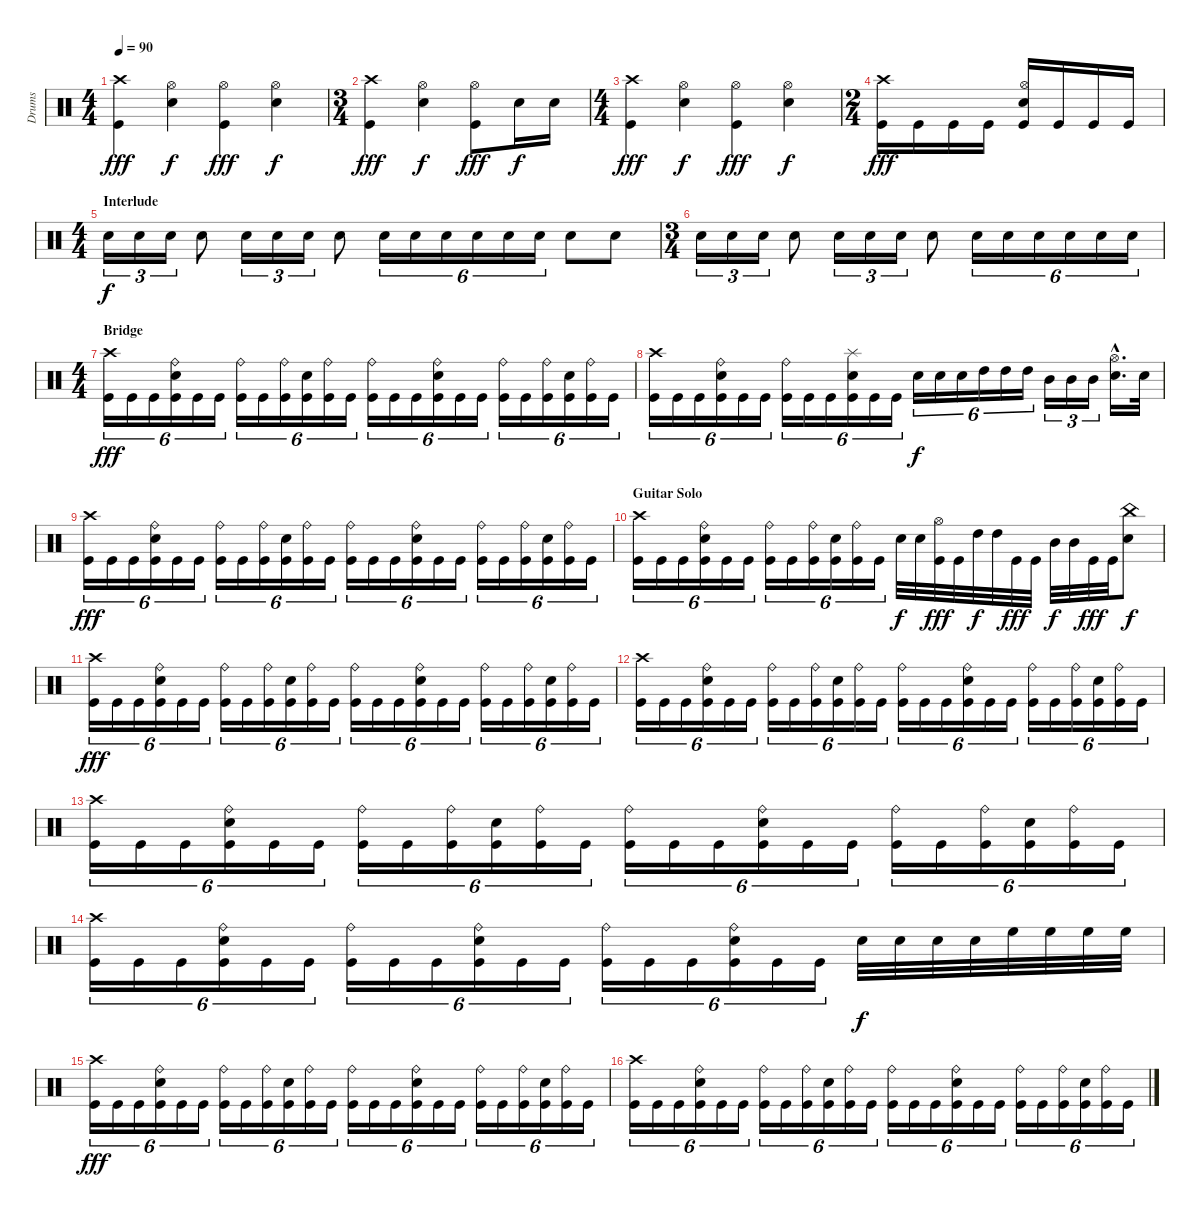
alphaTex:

\track ("Drums" "Drums") {instrument percussion}
\staff {score}
\articulation defaults
\ts (4 4)
\tempo 90
\clef neutral
\ks c
("Crash high (hit)" "Kick (hit)").4{dy fff} ("Hi-Hat (open)" "Electric Snare (hit)").4{dy f} ("Hi-Hat (open)" "Kick (hit)").4{dy fff} ("Hi-Hat (open)" "Electric Snare (hit)").4{dy f} |
\ts (3 4)
("Crash high (hit)" "Kick (hit)").4{dy fff} ("Hi-Hat (open)" "Electric Snare (hit)").4{dy f} ("Hi-Hat (open)" "Kick (hit)").8{dy fff} "Electric Snare (hit)".16{dy f} "Electric Snare (hit)".16 |
\ts (4 4)
("Crash high (hit)" "Kick (hit)").4{dy fff} ("Hi-Hat (open)" "Electric Snare (hit)").4{dy f} ("Hi-Hat (open)" "Kick (hit)").4{dy fff} ("Hi-Hat (open)" "Electric Snare (hit)").4{dy f} |
\ts (2 4)
("Crash high (hit)" "Kick (hit)").16{dy fff} "Kick (hit)".16 "Kick (hit)".16 "Kick (hit)".16 ("Hi-Hat (open)" "Electric Snare (hit)" "Kick (hit)").16 "Kick (hit)".16 "Kick (hit)".16 "Kick (hit)".16 |
\ts (4 4)
\section ("" "Interlude")
"Electric Snare (hit)".16{tu (3 2) dy f} "Electric Snare (hit)".16{tu (3 2)} "Electric Snare (hit)".16{tu (3 2)} "Electric Snare (hit)".8 "Electric Snare (hit)".16{tu (3 2)} "Electric Snare (hit)".16{tu (3 2)} "Electric Snare (hit)".16{tu (3 2)} "Electric Snare (hit)".8 "Electric Snare (hit)".16{tu (6 4)} "Electric Snare (hit)".16{tu (6 4)} "Electric Snare (hit)".16{tu (6 4)} "Electric Snare (hit)".16{tu (6 4)} "Electric Snare (hit)".16{tu (6 4)} "Electric Snare (hit)".16{tu (6 4)} "Electric Snare (hit)".8 "Electric Snare (hit)".8 |
\ts (3 4)
"Electric Snare (hit)".16{tu (3 2)} "Electric Snare (hit)".16{tu (3 2)} "Electric Snare (hit)".16{tu (3 2)} "Electric Snare (hit)".8 "Electric Snare (hit)".16{tu (3 2)} "Electric Snare (hit)".16{tu (3 2)} "Electric Snare (hit)".16{tu (3 2)} "Electric Snare (hit)".8 "Electric Snare (hit)".16{tu (6 4)} "Electric Snare (hit)".16{tu (6 4)} "Electric Snare (hit)".16{tu (6 4)} "Electric Snare (hit)".16{tu (6 4)} "Electric Snare (hit)".16{tu (6 4)} "Electric Snare (hit)".16{tu (6 4)} |
\ts (4 4)
\section ("" "Bridge")
("Crash high (hit)" "Kick (hit)").16{tu (6 4) dy fff} "Kick (hit)".16{tu (6 4)} "Kick (hit)".16{tu (6 4)} ("Ride (bell)" "Electric Snare (hit)" "Kick (hit)").16{tu (6 4)} "Kick (hit)".16{tu (6 4)} "Kick (hit)".16{tu (6 4)} ("Ride (bell)" "Kick (hit)").16{tu (6 4)} "Kick (hit)".16{tu (6 4)} ("Ride (bell)" "Kick (hit)").16{tu (6 4)} ("Electric Snare (hit)" "Kick (hit)").16{tu (6 4)} ("Ride (bell)" "Kick (hit)").16{tu (6 4)} "Kick (hit)".16{tu (6 4)} ("Ride (bell)" "Kick (hit)").16{tu (6 4)} "Kick (hit)".16{tu (6 4)} "Kick (hit)".16{tu (6 4)} ("Ride (bell)" "Electric Snare (hit)" "Kick (hit)").16{tu (6 4)} "Kick (hit)".16{tu (6 4)} "Kick (hit)".16{tu (6 4)} ("Ride (bell)" "Kick (hit)").16{tu (6 4)} "Kick (hit)".16{tu (6 4)} ("Ride (bell)" "Kick (hit)").16{tu (6 4)} ("Electric Snare (hit)" "Kick (hit)").16{tu (6 4)} ("Ride (bell)" "Kick (hit)").16{tu (6 4)} "Kick (hit)".16{tu (6 4)} |
("Crash high (hit)" "Kick (hit)").16{tu (6 4)} "Kick (hit)".16{tu (6 4)} "Kick (hit)".16{tu (6 4)} ("Ride (bell)" "Electric Snare (hit)" "Kick (hit)").16{tu (6 4)} "Kick (hit)".16{tu (6 4)} "Kick (hit)".16{tu (6 4)} ("Ride (bell)" "Kick (hit)").16{tu (6 4)} "Kick (hit)".16{tu (6 4)} "Kick (hit)".16{tu (6 4)} ("Splash (hit)" "Electric Snare (hit)" "Kick (hit)").16{tu (6 4)} "Kick (hit)".16{tu (6 4)} "Kick (hit)".16{tu (6 4)} "Electric Snare (hit)".16{tu (6 4) dy f} "Electric Snare (hit)".16{tu (6 4)} "Electric Snare (hit)".16{tu (6 4)} "High Tom (hit)".16{tu (6 4)} "High Tom (hit)".16{tu (6 4)} "High Tom (hit)".16{tu (6 4)} "Mid Tom (hit)".16{tu (3 2)} "Mid Tom (hit)".16{tu (3 2)} "Mid Tom (hit)".16{tu (3 2)} ("Hi-Hat (open)"{hac} "Electric Snare (hit)"{hac}).16{d} "Electric Snare (hit)".32 |
("Crash high (hit)" "Kick (hit)").16{tu (6 4) dy fff} "Kick (hit)".16{tu (6 4)} "Kick (hit)".16{tu (6 4)} ("Ride (bell)" "Electric Snare (hit)" "Kick (hit)").16{tu (6 4)} "Kick (hit)".16{tu (6 4)} "Kick (hit)".16{tu (6 4)} ("Ride (bell)" "Kick (hit)").16{tu (6 4)} "Kick (hit)".16{tu (6 4)} ("Ride (bell)" "Kick (hit)").16{tu (6 4)} ("Electric Snare (hit)" "Kick (hit)").16{tu (6 4)} ("Ride (bell)" "Kick (hit)").16{tu (6 4)} "Kick (hit)".16{tu (6 4)} ("Ride (bell)" "Kick (hit)").16{tu (6 4)} "Kick (hit)".16{tu (6 4)} "Kick (hit)".16{tu (6 4)} ("Ride (bell)" "Electric Snare (hit)" "Kick (hit)").16{tu (6 4)} "Kick (hit)".16{tu (6 4)} "Kick (hit)".16{tu (6 4)} ("Ride (bell)" "Kick (hit)").16{tu (6 4)} "Kick (hit)".16{tu (6 4)} ("Ride (bell)" "Kick (hit)").16{tu (6 4)} ("Electric Snare (hit)" "Kick (hit)").16{tu (6 4)} ("Ride (bell)" "Kick (hit)").16{tu (6 4)} "Kick (hit)".16{tu (6 4)} |
\section ("" "Guitar Solo")
("Crash high (hit)" "Kick (hit)").16{tu (6 4)} "Kick (hit)".16{tu (6 4)} "Kick (hit)".16{tu (6 4)} ("Ride (bell)" "Electric Snare (hit)" "Kick (hit)").16{tu (6 4)} "Kick (hit)".16{tu (6 4)} "Kick (hit)".16{tu (6 4)} ("Ride (bell)" "Kick (hit)").16{tu (6 4)} "Kick (hit)".16{tu (6 4)} ("Ride (bell)" "Kick (hit)").16{tu (6 4)} ("Electric Snare (hit)" "Kick (hit)").16{tu (6 4)} ("Ride (bell)" "Kick (hit)").16{tu (6 4)} "Kick (hit)".16{tu (6 4)} "Electric Snare (hit)".32{dy f} "Electric Snare (hit)".32 ("Hi-Hat (open)" "Kick (hit)").32{dy fff} "Kick (hit)".32 "High Tom (hit)".32{dy f} "High Tom (hit)".32 "Kick (hit)".32{dy fff} "Kick (hit)".32 "Mid Tom (hit)".32{dy f} "Mid Tom (hit)".32 "Kick (hit)".32{dy fff} "Kick (hit)".32 ("China (hit)" "Electric Snare (hit)").8{dy f} |
("Crash high (hit)" "Kick (hit)").16{tu (6 4) dy fff} "Kick (hit)".16{tu (6 4)} "Kick (hit)".16{tu (6 4)} ("Ride (bell)" "Electric Snare (hit)" "Kick (hit)").16{tu (6 4)} "Kick (hit)".16{tu (6 4)} "Kick (hit)".16{tu (6 4)} ("Ride (bell)" "Kick (hit)").16{tu (6 4)} "Kick (hit)".16{tu (6 4)} ("Ride (bell)" "Kick (hit)").16{tu (6 4)} ("Electric Snare (hit)" "Kick (hit)").16{tu (6 4)} ("Ride (bell)" "Kick (hit)").16{tu (6 4)} "Kick (hit)".16{tu (6 4)} ("Ride (bell)" "Kick (hit)").16{tu (6 4)} "Kick (hit)".16{tu (6 4)} "Kick (hit)".16{tu (6 4)} ("Ride (bell)" "Electric Snare (hit)" "Kick (hit)").16{tu (6 4)} "Kick (hit)".16{tu (6 4)} "Kick (hit)".16{tu (6 4)} ("Ride (bell)" "Kick (hit)").16{tu (6 4)} "Kick (hit)".16{tu (6 4)} ("Ride (bell)" "Kick (hit)").16{tu (6 4)} ("Electric Snare (hit)" "Kick (hit)").16{tu (6 4)} ("Ride (bell)" "Kick (hit)").16{tu (6 4)} "Kick (hit)".16{tu (6 4)} |
("Crash high (hit)" "Kick (hit)").16{tu (6 4)} "Kick (hit)".16{tu (6 4)} "Kick (hit)".16{tu (6 4)} ("Ride (bell)" "Electric Snare (hit)" "Kick (hit)").16{tu (6 4)} "Kick (hit)".16{tu (6 4)} "Kick (hit)".16{tu (6 4)} ("Ride (bell)" "Kick (hit)").16{tu (6 4)} "Kick (hit)".16{tu (6 4)} ("Ride (bell)" "Kick (hit)").16{tu (6 4)} ("Electric Snare (hit)" "Kick (hit)").16{tu (6 4)} ("Ride (bell)" "Kick (hit)").16{tu (6 4)} "Kick (hit)".16{tu (6 4)} ("Ride (bell)" "Kick (hit)").16{tu (6 4)} "Kick (hit)".16{tu (6 4)} "Kick (hit)".16{tu (6 4)} ("Ride (bell)" "Electric Snare (hit)" "Kick (hit)").16{tu (6 4)} "Kick (hit)".16{tu (6 4)} "Kick (hit)".16{tu (6 4)} ("Ride (bell)" "Kick (hit)").16{tu (6 4)} "Kick (hit)".16{tu (6 4)} ("Ride (bell)" "Kick (hit)").16{tu (6 4)} ("Electric Snare (hit)" "Kick (hit)").16{tu (6 4)} ("Ride (bell)" "Kick (hit)").16{tu (6 4)} "Kick (hit)".16{tu (6 4)} |
("Crash high (hit)" "Kick (hit)").16{tu (6 4)} "Kick (hit)".16{tu (6 4)} "Kick (hit)".16{tu (6 4)} ("Ride (bell)" "Electric Snare (hit)" "Kick (hit)").16{tu (6 4)} "Kick (hit)".16{tu (6 4)} "Kick (hit)".16{tu (6 4)} ("Ride (bell)" "Kick (hit)").16{tu (6 4)} "Kick (hit)".16{tu (6 4)} ("Ride (bell)" "Kick (hit)").16{tu (6 4)} ("Electric Snare (hit)" "Kick (hit)").16{tu (6 4)} ("Ride (bell)" "Kick (hit)").16{tu (6 4)} "Kick (hit)".16{tu (6 4)} ("Ride (bell)" "Kick (hit)").16{tu (6 4)} "Kick (hit)".16{tu (6 4)} "Kick (hit)".16{tu (6 4)} ("Ride (bell)" "Electric Snare (hit)" "Kick (hit)").16{tu (6 4)} "Kick (hit)".16{tu (6 4)} "Kick (hit)".16{tu (6 4)} ("Ride (bell)" "Kick (hit)").16{tu (6 4)} "Kick (hit)".16{tu (6 4)} ("Ride (bell)" "Kick (hit)").16{tu (6 4)} ("Electric Snare (hit)" "Kick (hit)").16{tu (6 4)} ("Ride (bell)" "Kick (hit)").16{tu (6 4)} "Kick (hit)".16{tu (6 4)} |
("Crash high (hit)" "Kick (hit)").16{tu (6 4)} "Kick (hit)".16{tu (6 4)} "Kick (hit)".16{tu (6 4)} ("Ride (bell)" "Electric Snare (hit)" "Kick (hit)").16{tu (6 4)} "Kick (hit)".16{tu (6 4)} "Kick (hit)".16{tu (6 4)} ("Ride (bell)" "Kick (hit)").16{tu (6 4)} "Kick (hit)".16{tu (6 4)} "Kick (hit)".16{tu (6 4)} ("Ride (bell)" "Electric Snare (hit)" "Kick (hit)").16{tu (6 4)} "Kick (hit)".16{tu (6 4)} "Kick (hit)".16{tu (6 4)} ("Ride (bell)" "Kick (hit)").16{tu (6 4)} "Kick (hit)".16{tu (6 4)} "Kick (hit)".16{tu (6 4)} ("Ride (bell)" "Electric Snare (hit)" "Kick (hit)").16{tu (6 4)} "Kick (hit)".16{tu (6 4)} "Kick (hit)".16{tu (6 4)} "Electric Snare (hit)".32{dy f} "Electric Snare (hit)".32 "Electric Snare (hit)".32 "Electric Snare (hit)".32 "High Floor Tom (hit)".32 "High Floor Tom (hit)".32 "High Floor Tom (hit)".32 "High Floor Tom (hit)".32 |
("Crash high (hit)" "Kick (hit)").16{tu (6 4) dy fff} "Kick (hit)".16{tu (6 4)} "Kick (hit)".16{tu (6 4)} ("Ride (bell)" "Electric Snare (hit)" "Kick (hit)").16{tu (6 4)} "Kick (hit)".16{tu (6 4)} "Kick (hit)".16{tu (6 4)} ("Ride (bell)" "Kick (hit)").16{tu (6 4)} "Kick (hit)".16{tu (6 4)} ("Ride (bell)" "Kick (hit)").16{tu (6 4)} ("Electric Snare (hit)" "Kick (hit)").16{tu (6 4)} ("Ride (bell)" "Kick (hit)").16{tu (6 4)} "Kick (hit)".16{tu (6 4)} ("Ride (bell)" "Kick (hit)").16{tu (6 4)} "Kick (hit)".16{tu (6 4)} "Kick (hit)".16{tu (6 4)} ("Ride (bell)" "Electric Snare (hit)" "Kick (hit)").16{tu (6 4)} "Kick (hit)".16{tu (6 4)} "Kick (hit)".16{tu (6 4)} ("Ride (bell)" "Kick (hit)").16{tu (6 4)} "Kick (hit)".16{tu (6 4)} ("Ride (bell)" "Kick (hit)").16{tu (6 4)} ("Electric Snare (hit)" "Kick (hit)").16{tu (6 4)} ("Ride (bell)" "Kick (hit)").16{tu (6 4)} "Kick (hit)".16{tu (6 4)} |
("Crash high (hit)" "Kick (hit)").16{tu (6 4)} "Kick (hit)".16{tu (6 4)} "Kick (hit)".16{tu (6 4)} ("Ride (bell)" "Electric Snare (hit)" "Kick (hit)").16{tu (6 4)} "Kick (hit)".16{tu (6 4)} "Kick (hit)".16{tu (6 4)} ("Ride (bell)" "Kick (hit)").16{tu (6 4)} "Kick (hit)".16{tu (6 4)} ("Ride (bell)" "Kick (hit)").16{tu (6 4)} ("Electric Snare (hit)" "Kick (hit)").16{tu (6 4)} ("Ride (bell)" "Kick (hit)").16{tu (6 4)} "Kick (hit)".16{tu (6 4)} ("Ride (bell)" "Kick (hit)").16{tu (6 4)} "Kick (hit)".16{tu (6 4)} "Kick (hit)".16{tu (6 4)} ("Ride (bell)" "Electric Snare (hit)" "Kick (hit)").16{tu (6 4)} "Kick (hit)".16{tu (6 4)} "Kick (hit)".16{tu (6 4)} ("Ride (bell)" "Kick (hit)").16{tu (6 4)} "Kick (hit)".16{tu (6 4)} ("Ride (bell)" "Kick (hit)").16{tu (6 4)} ("Electric Snare (hit)" "Kick (hit)").16{tu (6 4)} ("Ride (bell)" "Kick (hit)").16{tu (6 4)} "Kick (hit)".16{tu (6 4)}
